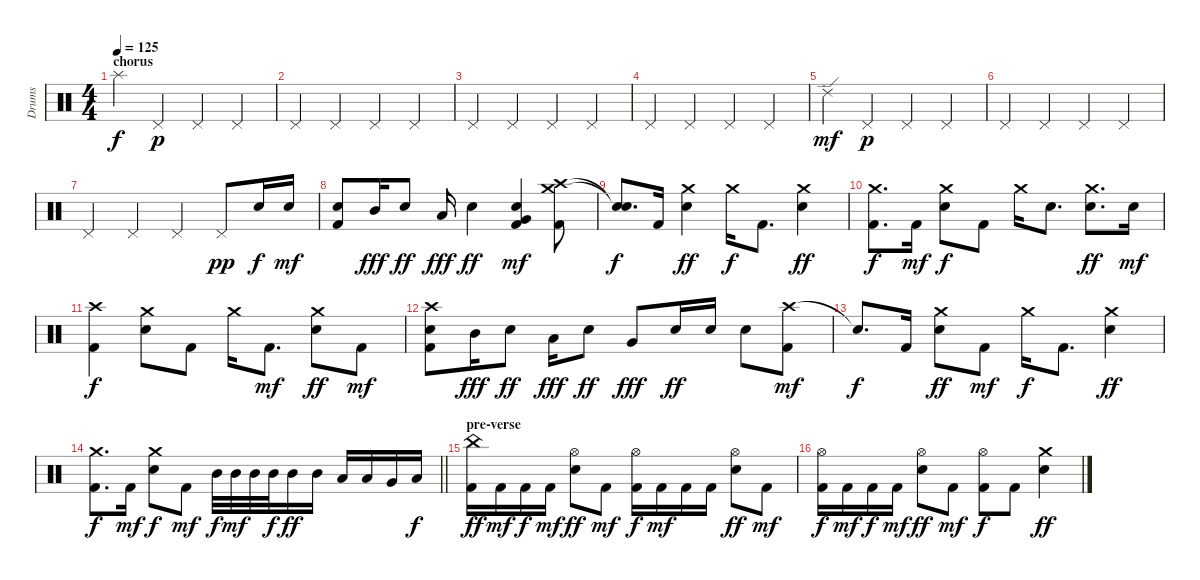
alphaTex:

\track ("Drums" "Drums") {instrument percussion}
\staff {score}
\articulation defaults
\ts (4 4)
\section ("" "chorus")
\tempo 125
\clef neutral
\ks c "Splash (hit)".4{dy f} "Pedal Hi-Hat (hit)".4{dy p} "Pedal Hi-Hat (hit)".4 "Pedal Hi-Hat (hit)".4
|
"Pedal Hi-Hat (hit)".4 "Pedal Hi-Hat (hit)".4 "Pedal Hi-Hat (hit)".4 "Pedal Hi-Hat (hit)".4 |
"Pedal Hi-Hat (hit)".4 "Pedal Hi-Hat (hit)".4 "Pedal Hi-Hat (hit)".4 "Pedal Hi-Hat (hit)".4 |
"Pedal Hi-Hat (hit)".4 "Pedal Hi-Hat (hit)".4 "Pedal Hi-Hat (hit)".4 "Pedal Hi-Hat (hit)".4 |
"Ride (edge) 2".4{dy mf} "Pedal Hi-Hat (hit)".4{dy p} "Pedal Hi-Hat (hit)".4 "Pedal Hi-Hat (hit)".4 |
"Pedal Hi-Hat (hit)".4 "Pedal Hi-Hat (hit)".4 "Pedal Hi-Hat (hit)".4 "Pedal Hi-Hat (hit)".4 |
"Pedal Hi-Hat (hit)".4 "Pedal Hi-Hat (hit)".4 "Pedal Hi-Hat (hit)".4 "Pedal Hi-Hat (hit)".8{dy pp} "Snare (hit) 2".16{dy f} "Snare (hit) 2".16{dy mf} |
("Snare (hit) 2" "Kick (hit) 2").8 "Mid Tom (hit)".16{dy fff} "Snare (hit) 2".8{dy ff} "Low Tom (hit)".16{dy fff} "Snare (hit) 2".4{dy ff} ("Very Low Tom (hit)" "Snare (hit) 2" "Kick (hit) 2").4{dy mf} ("Crash medium (hit)" "Crash high (hit)" "Kick (hit) 2").8 |
("Snare (hit)"{t} "Snare (hit)"{t}).8{d dy f} "Kick (hit) 2".16 ("Crash medium (hit)" "Snare (hit) 2").4{dy ff} "Crash medium (hit)".16{dy f} "Kick (hit) 2".8{d} ("Crash medium (hit)" "Snare (hit) 2").4{dy ff} |
("Crash medium (hit)" "Kick (hit) 2").8{d dy f} "Kick (hit) 2".16{dy mf} ("Crash medium (hit)" "Snare (hit) 2").8{dy f} "Kick (hit) 2".8 "Crash medium (hit)".16 "Snare (hit) 2".8{d} ("Crash medium (hit)" "Snare (hit) 2").8{d dy ff} "Snare (hit) 2".16{dy mf} |
("Crash high (hit)" "Kick (hit) 2").4{dy f} ("Crash medium (hit)" "Snare (hit) 2").8 "Kick (hit) 2".8 "Crash medium (hit)".16 "Kick (hit) 2".8{d dy mf} ("Crash medium (hit)" "Snare (hit) 2").8{dy ff} "Kick (hit) 2".8{dy mf} |
("Crash high (hit)" "Snare (hit) 2" "Kick (hit) 2").8 "Mid Tom (hit)".16{dy fff} "Snare (hit) 2".8{dy ff} "Low Tom (hit)".16{dy fff} "Snare (hit) 2".8{dy ff} "Very Low Tom (hit)".8{dy fff} "Snare (hit) 2".16{dy ff} "Snare (hit) 2".16 "Snare (hit) 2".8 ("Crash high (hit)" "Kick (hit) 2").8{dy mf} |
"Snare (hit)"{t}.8{d dy f} "Kick (hit) 2".16 ("Crash medium (hit)" "Snare (hit) 2").8{dy ff} "Kick (hit) 2".8{dy mf} "Crash medium (hit)".16{dy f} "Kick (hit) 2".8{d} ("Crash medium (hit)" "Snare (hit) 2").4{dy ff} |
\barLineRight lightlight
("Crash medium (hit)" "Kick (hit) 2").8{d dy f} "Kick (hit) 2".16{dy mf} ("Crash medium (hit)" "Snare (hit) 2").8{dy f} "Kick (hit) 2".8{dy mf} "Mid Tom (hit)".32{dy f} "Mid Tom (hit)".32{dy mf} "Mid Tom (hit)".32 "Mid Tom (hit)".32{dy f} "Mid Tom (hit)".16{dy ff} "Mid Tom (hit)".16 "Low Tom (hit)".16 "Low Tom (hit)".16 "Very Low Tom (hit)".16 "Low Tom (hit)".16{dy f} |
\section ("" "pre-verse")
("China (hit)" "Kick (hit) 2").16{dy ff} "Kick (hit) 2".16{dy mf} "Kick (hit) 2".16{dy f} "Kick (hit) 2".16{dy mf} ("Hi-Hat (open)" "Snare (hit) 2").8{dy ff} "Kick (hit) 2".8{dy mf} ("Hi-Hat (open)" "Kick (hit) 2").16{dy f} "Kick (hit) 2".16{dy mf} "Kick (hit) 2".16 "Kick (hit) 2".16 ("Hi-Hat (open)" "Snare (hit) 2").8{dy ff} "Kick (hit) 2".8{dy mf} |
("Hi-Hat (open)" "Kick (hit) 2").16{dy f} "Kick (hit) 2".16{dy mf} "Kick (hit) 2".16{dy f} "Kick (hit) 2".16{dy mf} ("Hi-Hat (open)" "Snare (hit) 2").8{dy ff} "Kick (hit) 2".8{dy mf} ("Hi-Hat (open)" "Kick (hit) 2").8{dy f} "Kick (hit) 2".8 ("Crash medium (hit)" "Snare (hit) 2").4{dy ff}
